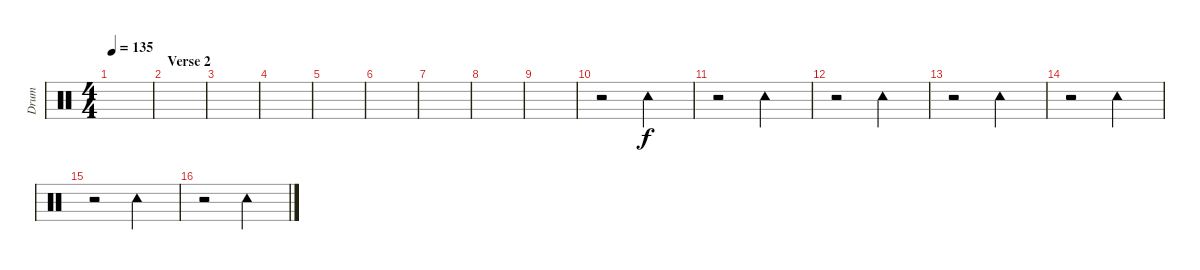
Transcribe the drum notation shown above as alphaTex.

\track ("Drum" "Drum") {instrument percussion}
\staff {score}
\articulation defaults
\ts (4 4)
\tempo 135
\clef neutral
\ks c
|
\section ("" "Verse 2")
|
|
|
|
|
|
|
|
r.2 "Tambourine (hit)".2 |
r.2 "Tambourine (hit)".2 |
r.2 "Tambourine (hit)".2 |
r.2 "Tambourine (hit)".2 |
r.2 "Tambourine (hit)".2 |
r.2 "Tambourine (hit)".2 |
r.2 "Tambourine (hit)".2
